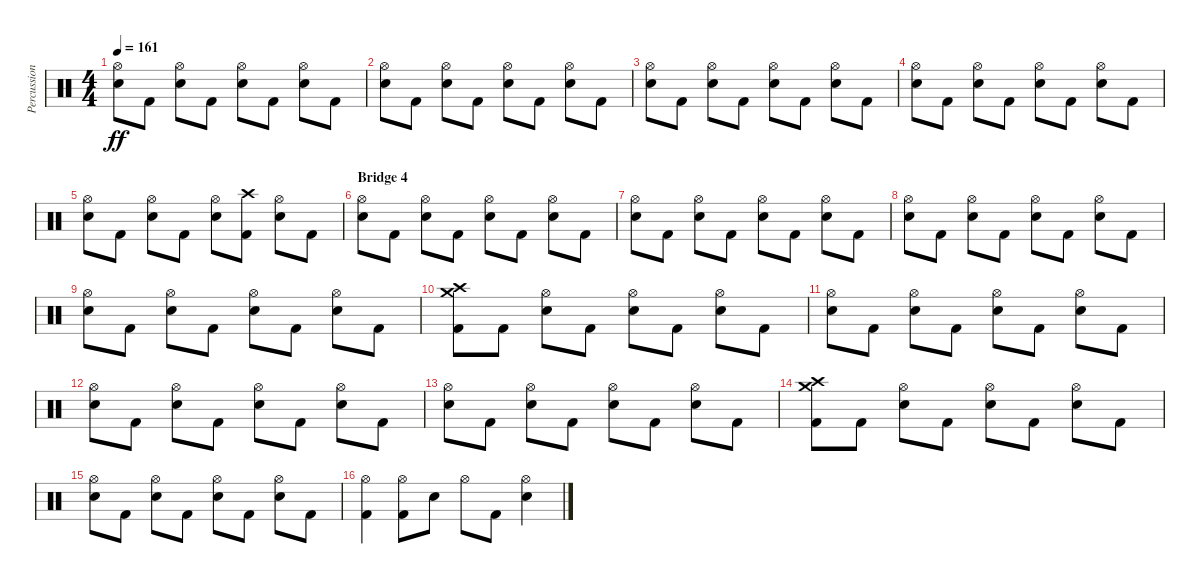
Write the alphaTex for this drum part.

\track ("Percussion" "Percussion") {instrument percussion}
\staff {score}
\articulation defaults
\ts (4 4)
\tempo 161
\clef neutral
\ks c
("Hi-Hat (open)" "Electric Snare (hit)").8{dy ff} "Kick (hit) 2".8 ("Hi-Hat (open)" "Electric Snare (hit)").8 "Kick (hit) 2".8 ("Hi-Hat (open)" "Electric Snare (hit)").8 "Kick (hit) 2".8 ("Hi-Hat (open)" "Electric Snare (hit)").8 "Kick (hit) 2".8 |
("Hi-Hat (open)" "Electric Snare (hit)").8 "Kick (hit) 2".8 ("Hi-Hat (open)" "Electric Snare (hit)").8 "Kick (hit) 2".8 ("Hi-Hat (open)" "Electric Snare (hit)").8 "Kick (hit) 2".8 ("Hi-Hat (open)" "Electric Snare (hit)").8 "Kick (hit) 2".8 |
("Hi-Hat (open)" "Electric Snare (hit)").8 "Kick (hit) 2".8 ("Hi-Hat (open)" "Electric Snare (hit)").8 "Kick (hit) 2".8 ("Hi-Hat (open)" "Electric Snare (hit)").8 "Kick (hit) 2".8 ("Hi-Hat (open)" "Electric Snare (hit)").8 "Kick (hit) 2".8 |
("Hi-Hat (open)" "Electric Snare (hit)").8 "Kick (hit) 2".8 ("Hi-Hat (open)" "Electric Snare (hit)").8 "Kick (hit) 2".8 ("Hi-Hat (open)" "Electric Snare (hit)").8 "Kick (hit) 2".8 ("Hi-Hat (open)" "Electric Snare (hit)").8 "Kick (hit) 2".8 |
("Hi-Hat (open)" "Electric Snare (hit)").8 "Kick (hit) 2".8 ("Hi-Hat (open)" "Electric Snare (hit)").8 "Kick (hit) 2".8 ("Hi-Hat (open)" "Electric Snare (hit)").8 ("Crash high (hit)" "Kick (hit) 2").8 ("Hi-Hat (open)" "Electric Snare (hit)").8 "Kick (hit) 2".8 |
\section ("" "Bridge 4")
("Hi-Hat (open)" "Electric Snare (hit)").8 "Kick (hit) 2".8 ("Hi-Hat (open)" "Electric Snare (hit)").8 "Kick (hit) 2".8 ("Hi-Hat (open)" "Electric Snare (hit)").8 "Kick (hit) 2".8 ("Hi-Hat (open)" "Electric Snare (hit)").8 "Kick (hit) 2".8 |
("Hi-Hat (open)" "Electric Snare (hit)").8 "Kick (hit) 2".8 ("Hi-Hat (open)" "Electric Snare (hit)").8 "Kick (hit) 2".8 ("Hi-Hat (open)" "Electric Snare (hit)").8 "Kick (hit) 2".8 ("Hi-Hat (open)" "Electric Snare (hit)").8 "Kick (hit) 2".8 |
("Hi-Hat (open)" "Electric Snare (hit)").8 "Kick (hit) 2".8 ("Hi-Hat (open)" "Electric Snare (hit)").8 "Kick (hit) 2".8 ("Hi-Hat (open)" "Electric Snare (hit)").8 "Kick (hit) 2".8 ("Hi-Hat (open)" "Electric Snare (hit)").8 "Kick (hit) 2".8 |
("Hi-Hat (open)" "Electric Snare (hit)").8 "Kick (hit) 2".8 ("Hi-Hat (open)" "Electric Snare (hit)").8 "Kick (hit) 2".8 ("Hi-Hat (open)" "Electric Snare (hit)").8 "Kick (hit) 2".8 ("Hi-Hat (open)" "Electric Snare (hit)").8 "Kick (hit) 2".8 |
("Crash medium (hit)" "Crash high (hit)" "Kick (hit) 2").8 "Kick (hit) 2".8 ("Hi-Hat (open)" "Electric Snare (hit)").8 "Kick (hit) 2".8 ("Hi-Hat (open)" "Electric Snare (hit)").8 "Kick (hit) 2".8 ("Hi-Hat (open)" "Electric Snare (hit)").8 "Kick (hit) 2".8 |
("Hi-Hat (open)" "Electric Snare (hit)").8 "Kick (hit) 2".8 ("Hi-Hat (open)" "Electric Snare (hit)").8 "Kick (hit) 2".8 ("Hi-Hat (open)" "Electric Snare (hit)").8 "Kick (hit) 2".8 ("Hi-Hat (open)" "Electric Snare (hit)").8 "Kick (hit) 2".8 |
("Hi-Hat (open)" "Electric Snare (hit)").8 "Kick (hit) 2".8 ("Hi-Hat (open)" "Electric Snare (hit)").8 "Kick (hit) 2".8 ("Hi-Hat (open)" "Electric Snare (hit)").8 "Kick (hit) 2".8 ("Hi-Hat (open)" "Electric Snare (hit)").8 "Kick (hit) 2".8 |
("Hi-Hat (open)" "Electric Snare (hit)").8 "Kick (hit) 2".8 ("Hi-Hat (open)" "Electric Snare (hit)").8 "Kick (hit) 2".8 ("Hi-Hat (open)" "Electric Snare (hit)").8 "Kick (hit) 2".8 ("Hi-Hat (open)" "Electric Snare (hit)").8 "Kick (hit) 2".8 |
("Crash medium (hit)" "Crash high (hit)" "Kick (hit) 2").8 "Kick (hit) 2".8 ("Hi-Hat (open)" "Electric Snare (hit)").8 "Kick (hit) 2".8 ("Hi-Hat (open)" "Electric Snare (hit)").8 "Kick (hit) 2".8 ("Hi-Hat (open)" "Electric Snare (hit)").8 "Kick (hit) 2".8 |
("Hi-Hat (open)" "Electric Snare (hit)").8 "Kick (hit) 2".8 ("Hi-Hat (open)" "Electric Snare (hit)").8 "Kick (hit) 2".8 ("Hi-Hat (open)" "Electric Snare (hit)").8 "Kick (hit) 2".8 ("Hi-Hat (open)" "Electric Snare (hit)").8 "Kick (hit) 2".8 |
("Hi-Hat (open)" "Kick (hit) 2").4 ("Hi-Hat (open)" "Kick (hit) 2").8 "Electric Snare (hit)".8 "Hi-Hat (open)".8 "Kick (hit) 2".8 ("Hi-Hat (open)" "Electric Snare (hit)").4
